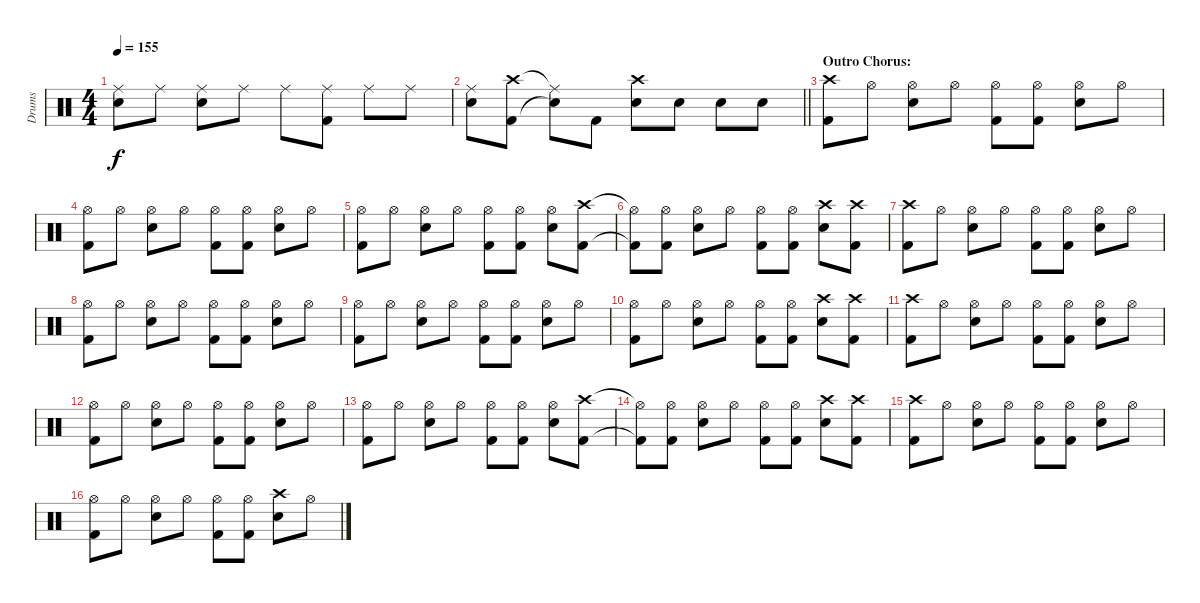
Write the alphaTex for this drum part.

\track ("Drums" "Drums") {instrument percussion}
\staff {score}
\articulation defaults
\ts (4 4)
\tempo 155
\clef neutral
\ks c
("Ride (middle)"{t} "Snare (hit)"{t}).8{dy f} "Ride (middle)".8 ("Ride (middle)" "Electric Snare (hit)").8 "Ride (middle)".8 "Ride (middle)".8 ("Ride (middle)" "Kick (hit) 2").8 "Ride (middle)".8 "Ride (middle)".8 |
\barLineRight lightlight
("Ride (middle)" "Electric Snare (hit)").8 ("Crash high (hit)" "Kick (hit) 2").8 ("Ride (middle)"{t} "Snare (hit)"{t}).8 "Kick (hit) 2".8 ("Crash high (hit)" "Electric Snare (hit)").8 "Electric Snare (hit)".8 "Electric Snare (hit)".8 "Electric Snare (hit)".8 |
\section ("" "Outro Chorus:")
("Crash high (hit)" "Kick (hit) 2").8 "Hi-Hat (open)".8 ("Hi-Hat (open)" "Electric Snare (hit)").8 "Hi-Hat (open)".8 ("Hi-Hat (open)" "Kick (hit) 2").8 ("Hi-Hat (open)" "Kick (hit) 2").8 ("Hi-Hat (open)" "Electric Snare (hit)").8 "Hi-Hat (open)".8 |
("Hi-Hat (open)" "Kick (hit) 2").8 "Hi-Hat (open)".8 ("Hi-Hat (open)" "Electric Snare (hit)").8 "Hi-Hat (open)".8 ("Hi-Hat (open)" "Kick (hit) 2").8 ("Hi-Hat (open)" "Kick (hit) 2").8 ("Hi-Hat (open)" "Electric Snare (hit)").8 "Hi-Hat (open)".8 |
("Hi-Hat (open)" "Kick (hit) 2").8 "Hi-Hat (open)".8 ("Hi-Hat (open)" "Electric Snare (hit)").8 "Hi-Hat (open)".8 ("Hi-Hat (open)" "Kick (hit) 2").8 ("Hi-Hat (open)" "Kick (hit) 2").8 ("Hi-Hat (open)" "Electric Snare (hit)").8 ("Crash high (hit)" "Kick (hit) 2").8 |
("Hi-Hat (open)"{t} "Kick (hit) 2"{t}).8 ("Hi-Hat (open)" "Kick (hit) 2").8 ("Hi-Hat (open)" "Electric Snare (hit)").8 "Hi-Hat (open)".8 ("Hi-Hat (open)" "Kick (hit) 2").8 ("Hi-Hat (open)" "Kick (hit) 2").8 ("Crash high (hit)" "Electric Snare (hit)").8 ("Crash high (hit)" "Kick (hit) 2").8 |
("Crash high (hit)" "Kick (hit) 2").8 "Hi-Hat (open)".8 ("Hi-Hat (open)" "Electric Snare (hit)").8 "Hi-Hat (open)".8 ("Hi-Hat (open)" "Kick (hit) 2").8 ("Hi-Hat (open)" "Kick (hit) 2").8 ("Hi-Hat (open)" "Electric Snare (hit)").8 "Hi-Hat (open)".8 |
("Hi-Hat (open)" "Kick (hit) 2").8 "Hi-Hat (open)".8 ("Hi-Hat (open)" "Electric Snare (hit)").8 "Hi-Hat (open)".8 ("Hi-Hat (open)" "Kick (hit) 2").8 ("Hi-Hat (open)" "Kick (hit) 2").8 ("Hi-Hat (open)" "Electric Snare (hit)").8 "Hi-Hat (open)".8 |
("Hi-Hat (open)" "Kick (hit) 2").8 "Hi-Hat (open)".8 ("Hi-Hat (open)" "Electric Snare (hit)").8 "Hi-Hat (open)".8 ("Hi-Hat (open)" "Kick (hit) 2").8 ("Hi-Hat (open)" "Kick (hit) 2").8 ("Hi-Hat (open)" "Electric Snare (hit)").8 "Hi-Hat (open)".8 |
("Hi-Hat (open)" "Kick (hit) 2").8 "Hi-Hat (open)".8 ("Hi-Hat (open)" "Electric Snare (hit)").8 "Hi-Hat (open)".8 ("Hi-Hat (open)" "Kick (hit) 2").8 ("Hi-Hat (open)" "Kick (hit) 2").8 ("Crash high (hit)" "Electric Snare (hit)").8 ("Crash high (hit)" "Kick (hit) 2").8 |
("Crash high (hit)" "Kick (hit) 2").8 "Hi-Hat (open)".8 ("Hi-Hat (open)" "Electric Snare (hit)").8 "Hi-Hat (open)".8 ("Hi-Hat (open)" "Kick (hit) 2").8 ("Hi-Hat (open)" "Kick (hit) 2").8 ("Hi-Hat (open)" "Electric Snare (hit)").8 "Hi-Hat (open)".8 |
("Hi-Hat (open)" "Kick (hit) 2").8 "Hi-Hat (open)".8 ("Hi-Hat (open)" "Electric Snare (hit)").8 "Hi-Hat (open)".8 ("Hi-Hat (open)" "Kick (hit) 2").8 ("Hi-Hat (open)" "Kick (hit) 2").8 ("Hi-Hat (open)" "Electric Snare (hit)").8 "Hi-Hat (open)".8 |
("Hi-Hat (open)" "Kick (hit) 2").8 "Hi-Hat (open)".8 ("Hi-Hat (open)" "Electric Snare (hit)").8 "Hi-Hat (open)".8 ("Hi-Hat (open)" "Kick (hit) 2").8 ("Hi-Hat (open)" "Kick (hit) 2").8 ("Hi-Hat (open)" "Electric Snare (hit)").8 ("Crash high (hit)" "Kick (hit) 2").8 |
("Hi-Hat (open)"{t} "Kick (hit) 2"{t}).8 ("Hi-Hat (open)" "Kick (hit) 2").8 ("Hi-Hat (open)" "Electric Snare (hit)").8 "Hi-Hat (open)".8 ("Hi-Hat (open)" "Kick (hit) 2").8 ("Hi-Hat (open)" "Kick (hit) 2").8 ("Crash high (hit)" "Electric Snare (hit)").8 ("Crash high (hit)" "Kick (hit) 2").8 |
("Crash high (hit)" "Kick (hit) 2").8 "Hi-Hat (open)".8 ("Hi-Hat (open)" "Electric Snare (hit)").8 "Hi-Hat (open)".8 ("Hi-Hat (open)" "Kick (hit) 2").8 ("Hi-Hat (open)" "Kick (hit) 2").8 ("Hi-Hat (open)" "Electric Snare (hit)").8 "Hi-Hat (open)".8 |
("Hi-Hat (open)" "Kick (hit) 2").8 "Hi-Hat (open)".8 ("Hi-Hat (open)" "Electric Snare (hit)").8 "Hi-Hat (open)".8 ("Hi-Hat (open)" "Kick (hit) 2").8 ("Hi-Hat (open)" "Kick (hit) 2").8 ("Crash high (hit)" "Electric Snare (hit)").8 "Hi-Hat (open)".8
